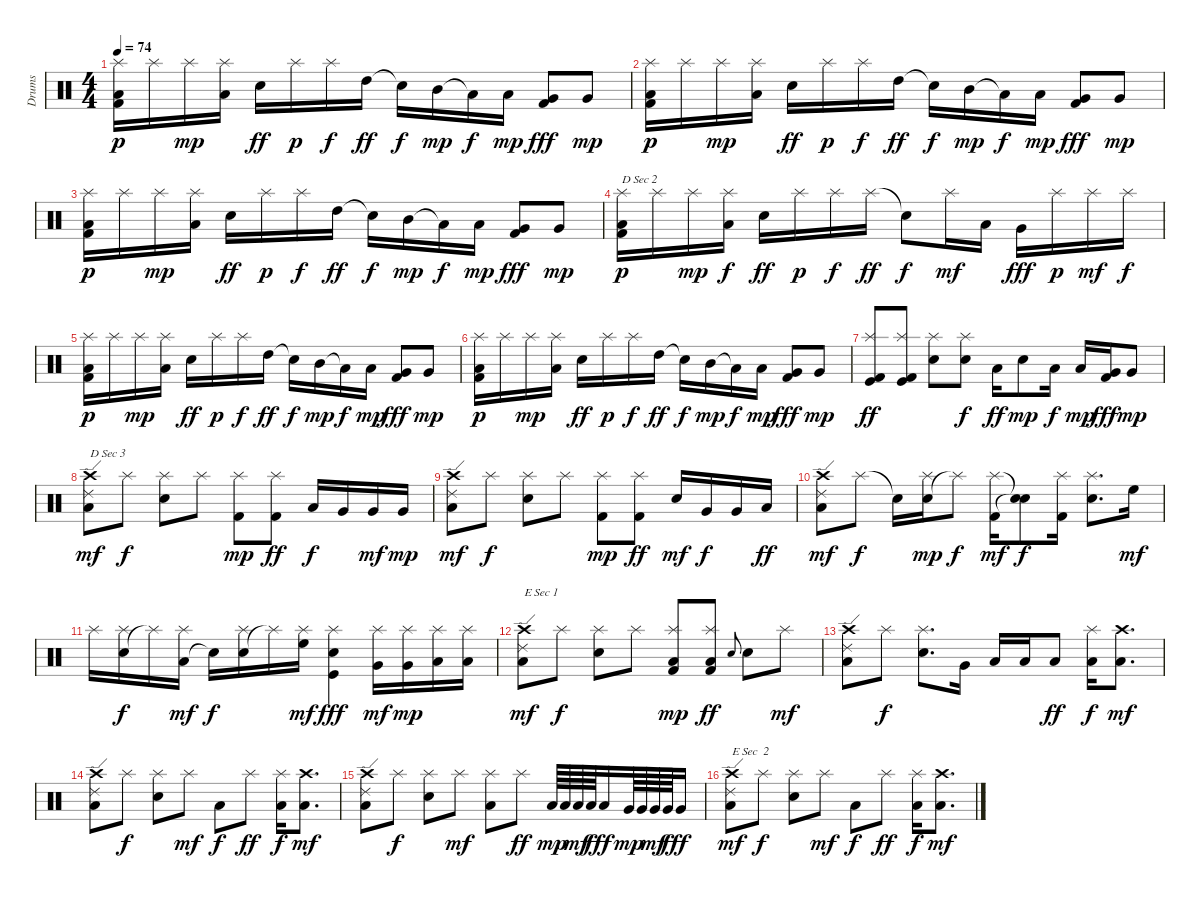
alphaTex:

\track ("Drums" "Drums") {instrument percussion}
\staff {score}
\articulation defaults
\ts (4 4)
\tempo 74
\clef neutral
\ks c
("Low Tom (hit)" "Kick (hit) 2" "Splash (hit)").16{dy p} "Splash (hit)".16 "Splash (hit)".16{dy mp} ("Splash (hit)" "Low Tom (hit)").16 "Electric Snare (hit)".16{dy ff} "Splash (hit)".16{dy p} "Splash (hit)".16{dy f} "High Tom (hit)".16{dy ff} "Snare (hit)"{t}.16{dy f} "Mid Tom (hit)".16{dy mp} "Low Tom (hit)"{t}.16{dy f} "Low Tom (hit)".16{dy mp} ("Very Low Tom (hit)" "Kick (hit) 2").8{dy fff} "Very Low Tom (hit)".8{dy mp} |
("Low Tom (hit)" "Kick (hit) 2" "Splash (hit)").16{dy p} "Splash (hit)".16 "Splash (hit)".16{dy mp} ("Splash (hit)" "Low Tom (hit)").16 "Electric Snare (hit)".16{dy ff} "Splash (hit)".16{dy p} "Splash (hit)".16{dy f} "High Tom (hit)".16{dy ff} "Snare (hit)"{t}.16{dy f} "Mid Tom (hit)".16{dy mp} "Low Tom (hit)"{t}.16{dy f} "Low Tom (hit)".16{dy mp} ("Very Low Tom (hit)" "Kick (hit) 2").8{dy fff} "Very Low Tom (hit)".8{dy mp} |
("Low Tom (hit)" "Kick (hit) 2" "Splash (hit)").16{dy p} "Splash (hit)".16 "Splash (hit)".16{dy mp} ("Splash (hit)" "Low Tom (hit)").16 "Electric Snare (hit)".16{dy ff} "Splash (hit)".16{dy p} "Splash (hit)".16{dy f} "High Tom (hit)".16{dy ff} "Snare (hit)"{t}.16{dy f} "Mid Tom (hit)".16{dy mp} "Low Tom (hit)"{t}.16{dy f} "Low Tom (hit)".16{dy mp} ("Very Low Tom (hit)" "Kick (hit) 2").8{dy fff} "Very Low Tom (hit)".8{dy mp} |
("Low Tom (hit)" "Kick (hit) 2" "Splash (hit)").16{txt "D Sec 2" dy p} "Splash (hit)".16 "Splash (hit)".16{dy mp} ("Splash (hit)" "Low Tom (hit)").16{dy f} "Electric Snare (hit)".16{dy ff} "Splash (hit)".16{dy p} "Splash (hit)".16{dy f} "Splash (hit)".16{dy ff} "Snare (hit)"{t}.8{dy f} "Splash (hit)".16{dy mf} "Low Tom (hit)".16 "Very Low Tom (hit)".16{dy fff} "Splash (hit)".16{dy p} "Splash (hit)".16{dy mf} "Splash (hit)".16{dy f} |
("Low Tom (hit)" "Kick (hit) 2" "Splash (hit)").16{dy p} "Splash (hit)".16 "Splash (hit)".16{dy mp} ("Splash (hit)" "Low Tom (hit)").16 "Electric Snare (hit)".16{dy ff} "Splash (hit)".16{dy p} "Splash (hit)".16{dy f} "High Tom (hit)".16{dy ff} "Snare (hit)"{t}.16{dy f} "Mid Tom (hit)".16{dy mp} "Low Tom (hit)"{t}.16{dy f} "Low Tom (hit)".16{dy mp} ("Very Low Tom (hit)" "Kick (hit) 2").8{dy fff} "Very Low Tom (hit)".8{dy mp} |
("Low Tom (hit)" "Kick (hit) 2" "Splash (hit)").16{dy p} "Splash (hit)".16 "Splash (hit)".16{dy mp} ("Splash (hit)" "Low Tom (hit)").16 "Electric Snare (hit)".16{dy ff} "Splash (hit)".16{dy p} "Splash (hit)".16{dy f} "High Tom (hit)".16{dy ff} "Snare (hit)"{t}.16{dy f} "Mid Tom (hit)".16{dy mp} "Low Tom (hit)"{t}.16{dy f} "Low Tom (hit)".16{dy mp} ("Very Low Tom (hit)" "Kick (hit) 2").8{dy fff} "Very Low Tom (hit)".8{dy mp} |
("Kick (hit) 2" "Kick (hit)" "Splash (hit)").8{dy ff} ("Kick (hit) 2" "Kick (hit)" "Splash (hit)").8 ("Electric Snare (hit)" "Splash (hit)").8 ("Electric Snare (hit)" "Splash (hit)").8{dy f} "Low Tom (hit)".16{dy ff} "Electric Snare (hit)".8{dy mp} "Low Tom (hit)".16{dy f} "Low Tom (hit)".16{dy mp} ("Very Low Tom (hit)" "Kick (hit) 2").16{dy fff} "Very Low Tom (hit)".8{dy mp} |
("Crash high (hit)" "Ride (edge) 2" "Low Tom (hit)").8{txt "D Sec 3" dy mf} "Splash (hit)".8{dy f} ("Electric Snare (hit)" "Splash (hit)").8 "Splash (hit)".8 ("Kick (hit) 2" "Splash (hit)").8{dy mp} ("Kick (hit) 2" "Splash (hit)").8{dy ff} "Low Tom (hit)".16{dy f} "Very Low Tom (hit)".16 "Very Low Tom (hit)".16{dy mf} "Very Low Tom (hit)".16{dy mp} |
("Crash high (hit)" "Ride (edge) 2" "Low Tom (hit)").8{dy mf} "Splash (hit)".8{dy f} ("Electric Snare (hit)" "Splash (hit)").8 "Splash (hit)".8 ("Kick (hit) 2" "Splash (hit)").8{dy mp} ("Kick (hit) 2" "Splash (hit)").8{dy ff} "Electric Snare (hit)".16{dy mf} "Very Low Tom (hit)".16{dy f} "Very Low Tom (hit)".16 "Low Tom (hit)".16{dy ff} |
("Crash high (hit)" "Ride (edge) 2" "Low Tom (hit)").8{dy mf} "Splash (hit)".8{dy f} "Snare (hit)"{t}.16 ("Electric Snare (hit)" "Splash (hit)").16{dy mp} "Splash (hit)"{t}.8{dy f} ("Kick (hit) 2" "Splash (hit)").16{dy mf} ("Snare (hit)"{t} "Electric Snare (hit)"{t}).8{dy f} ("Kick (hit) 2" "Splash (hit)").16 ("Electric Snare (hit)" "Splash (hit)").8{d} "High Floor Tom (hit)".16{dy mf} |
"Splash (hit)".16 ("Electric Snare (hit)" "Splash (hit)").16{dy f} "Splash (hit)"{t}.16 ("Low Tom (hit)" "Splash (hit)").16{dy mf} "Snare (hit)"{t}.16{dy f} ("Electric Snare (hit)" "Splash (hit)").16 "Splash (hit)"{t}.16 ("High Floor Tom (hit)" "Splash (hit)").16{dy mf} ("Kick (hit)" "Electric Snare (hit)" "Splash (hit)").4{dy fff} ("Very Low Tom (hit)" "Splash (hit)").16{dy mf} ("Very Low Tom (hit)" "Splash (hit)").16{dy mp} ("Low Floor Tom (hit)" "Splash (hit)").16 ("Low Floor Tom (hit)" "Splash (hit)").16 |
("Crash high (hit)" "Ride (edge) 2" "Low Tom (hit)").8{txt "E Sec 1" dy mf} "Splash (hit)".8{dy f} ("Electric Snare (hit)" "Splash (hit)").8 "Splash (hit)".8 ("Low Floor Tom (hit)" "Kick (hit) 2" "Splash (hit)").8{dy mp} ("Low Floor Tom (hit)" "Kick (hit) 2" "Splash (hit)").8{dy ff} "Electric Snare (hit)".8{gr onbeat} "Electric Snare (hit)".8 "Splash (hit)".8{dy mf} |
("Crash high (hit)" "Ride (edge) 2" "Low Tom (hit)").8 "Splash (hit)".8{dy f} ("Electric Snare (hit)" "Splash (hit)").8{d} "Very Low Tom (hit)".16 "Low Tom (hit)".16 "Low Tom (hit)".16 "Low Tom (hit)".8{dy ff} ("Splash (hit)" "Low Tom (hit)").16{dy f} ("Crash high (hit)" "Low Floor Tom (hit)").8{d dy mf} |
("Crash high (hit)" "Ride (edge) 2" "Low Tom (hit)").8 "Splash (hit)".8{dy f} ("Electric Snare (hit)" "Splash (hit)").8 "Splash (hit)".8{dy mf} "Low Tom (hit)".8{dy f} "Splash (hit)".8{dy ff} ("Splash (hit)" "Low Tom (hit)").16{dy f} ("Crash high (hit)" "Low Floor Tom (hit)").8{d dy mf} |
("Crash high (hit)" "Ride (edge) 2" "Low Tom (hit)").8 "Splash (hit)".8{dy f} ("Electric Snare (hit)" "Splash (hit)").8 "Splash (hit)".8{dy mf} ("Low Tom (hit)" "Splash (hit)").8 "Splash (hit)".8{dy ff} "Low Tom (hit)".64{dy mp} "Low Tom (hit)".64 "Low Tom (hit)".64{dy mf} "Low Tom (hit)".64{dy f} "Low Tom (hit)".16{dy ff} "Very Low Tom (hit)".64{dy mp} "Very Low Tom (hit)".64 "Very Low Tom (hit)".64{dy mf} "Very Low Tom (hit)".64{dy f} "Very Low Tom (hit)".16{dy ff} |
("Crash high (hit)" "Ride (edge) 2" "Low Tom (hit)").8{txt "E Sec  2" dy mf} "Splash (hit)".8{dy f} ("Electric Snare (hit)" "Splash (hit)").8 "Splash (hit)".8{dy mf} "Low Tom (hit)".8{dy f} "Splash (hit)".8{dy ff} ("Splash (hit)" "Low Tom (hit)").16{dy f} ("Crash high (hit)" "Low Floor Tom (hit)").8{d dy mf}
